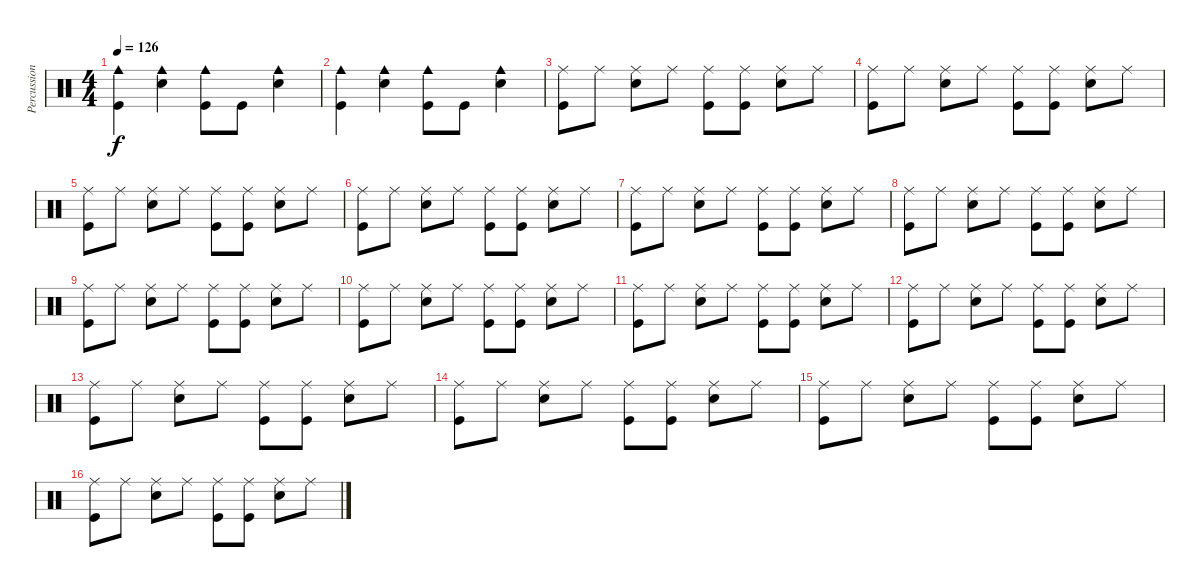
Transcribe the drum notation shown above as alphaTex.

\track ("Percussion" "Percussion") {instrument percussion}
\staff {score}
\articulation defaults
\ts (4 4)
\tempo 126
\clef neutral
\ks c
("Cowbell medium (hit)" "Kick (hit)").4{dy f} ("Cowbell medium (hit)" "Electric Snare (hit)").4 ("Cowbell medium (hit)" "Kick (hit)").8 "Kick (hit)".8 ("Cowbell medium (hit)" "Electric Snare (hit)").4 |
("Cowbell medium (hit)" "Kick (hit)").4 ("Cowbell medium (hit)" "Electric Snare (hit)").4 ("Cowbell medium (hit)" "Kick (hit)").8 "Kick (hit)".8 ("Cowbell medium (hit)" "Electric Snare (hit)").4 |
("Ride (middle)" "Kick (hit)").8 "Ride (middle)".8 ("Ride (middle)" "Electric Snare (hit)").8 "Ride (middle)".8 ("Ride (middle)" "Kick (hit)").8 ("Ride (middle)" "Kick (hit)").8 ("Ride (middle)" "Electric Snare (hit)").8 "Ride (middle)".8 |
("Ride (middle)" "Kick (hit)").8 "Ride (middle)".8 ("Ride (middle)" "Electric Snare (hit)").8 "Ride (middle)".8 ("Ride (middle)" "Kick (hit)").8 ("Ride (middle)" "Kick (hit)").8 ("Ride (middle)" "Electric Snare (hit)").8 "Ride (middle)".8 |
("Ride (middle)" "Kick (hit)").8 "Ride (middle)".8 ("Ride (middle)" "Electric Snare (hit)").8 "Ride (middle)".8 ("Ride (middle)" "Kick (hit)").8 ("Ride (middle)" "Kick (hit)").8 ("Ride (middle)" "Electric Snare (hit)").8 "Ride (middle)".8 |
("Ride (middle)" "Kick (hit)").8 "Ride (middle)".8 ("Ride (middle)" "Electric Snare (hit)").8 "Ride (middle)".8 ("Ride (middle)" "Kick (hit)").8 ("Ride (middle)" "Kick (hit)").8 ("Ride (middle)" "Electric Snare (hit)").8 "Ride (middle)".8 |
("Ride (middle)" "Kick (hit)").8 "Ride (middle)".8 ("Ride (middle)" "Electric Snare (hit)").8 "Ride (middle)".8 ("Ride (middle)" "Kick (hit)").8 ("Ride (middle)" "Kick (hit)").8 ("Ride (middle)" "Electric Snare (hit)").8 "Ride (middle)".8 |
("Ride (middle)" "Kick (hit)").8 "Ride (middle)".8 ("Ride (middle)" "Electric Snare (hit)").8 "Ride (middle)".8 ("Ride (middle)" "Kick (hit)").8 ("Ride (middle)" "Kick (hit)").8 ("Ride (middle)" "Electric Snare (hit)").8 "Ride (middle)".8 |
("Ride (middle)" "Kick (hit)").8 "Ride (middle)".8 ("Ride (middle)" "Electric Snare (hit)").8 "Ride (middle)".8 ("Ride (middle)" "Kick (hit)").8 ("Ride (middle)" "Kick (hit)").8 ("Ride (middle)" "Electric Snare (hit)").8 "Ride (middle)".8 |
("Ride (middle)" "Kick (hit)").8 "Ride (middle)".8 ("Ride (middle)" "Electric Snare (hit)").8 "Ride (middle)".8 ("Ride (middle)" "Kick (hit)").8 ("Ride (middle)" "Kick (hit)").8 ("Ride (middle)" "Electric Snare (hit)").8 "Ride (middle)".8 |
("Ride (middle)" "Kick (hit)").8 "Ride (middle)".8 ("Ride (middle)" "Electric Snare (hit)").8 "Ride (middle)".8 ("Ride (middle)" "Kick (hit)").8 ("Ride (middle)" "Kick (hit)").8 ("Ride (middle)" "Electric Snare (hit)").8 "Ride (middle)".8 |
("Ride (middle)" "Kick (hit)").8 "Ride (middle)".8 ("Ride (middle)" "Electric Snare (hit)").8 "Ride (middle)".8 ("Ride (middle)" "Kick (hit)").8 ("Ride (middle)" "Kick (hit)").8 ("Ride (middle)" "Electric Snare (hit)").8 "Ride (middle)".8 |
("Ride (middle)" "Kick (hit)").8 "Ride (middle)".8 ("Ride (middle)" "Electric Snare (hit)").8 "Ride (middle)".8 ("Ride (middle)" "Kick (hit)").8 ("Ride (middle)" "Kick (hit)").8 ("Ride (middle)" "Electric Snare (hit)").8 "Ride (middle)".8 |
("Ride (middle)" "Kick (hit)").8 "Ride (middle)".8 ("Ride (middle)" "Electric Snare (hit)").8 "Ride (middle)".8 ("Ride (middle)" "Kick (hit)").8 ("Ride (middle)" "Kick (hit)").8 ("Ride (middle)" "Electric Snare (hit)").8 "Ride (middle)".8 |
("Ride (middle)" "Kick (hit)").8 "Ride (middle)".8 ("Ride (middle)" "Electric Snare (hit)").8 "Ride (middle)".8 ("Ride (middle)" "Kick (hit)").8 ("Ride (middle)" "Kick (hit)").8 ("Ride (middle)" "Electric Snare (hit)").8 "Ride (middle)".8 |
("Ride (middle)" "Kick (hit)").8 "Ride (middle)".8 ("Ride (middle)" "Electric Snare (hit)").8 "Ride (middle)".8 ("Ride (middle)" "Kick (hit)").8 ("Ride (middle)" "Kick (hit)").8 ("Ride (middle)" "Electric Snare (hit)").8 "Ride (middle)".8
